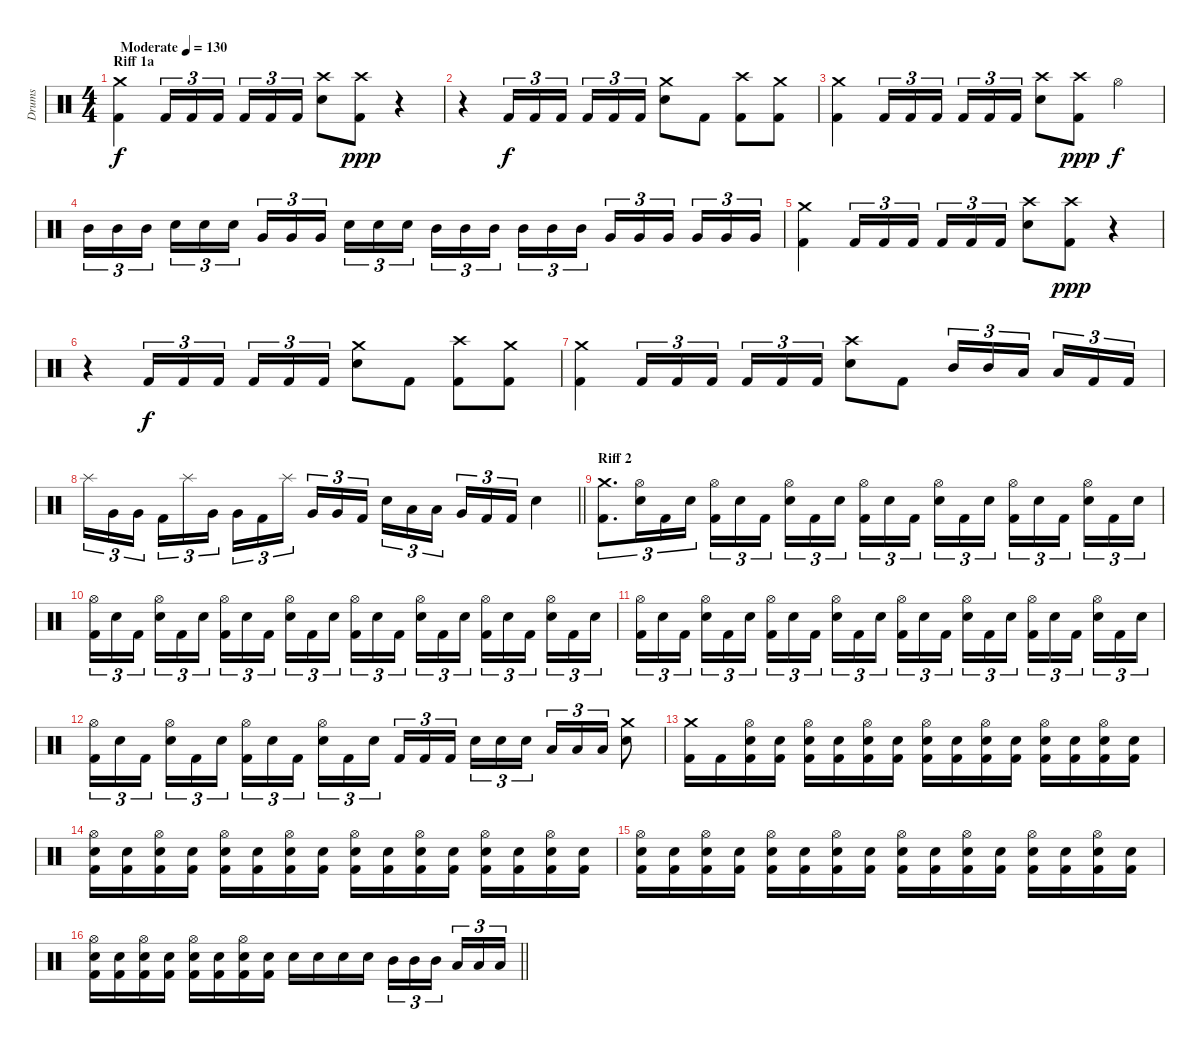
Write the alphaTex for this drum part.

\track ("Drums" "Drums") {instrument percussion}
\staff {score}
\articulation defaults
\ts (4 4)
\section ("" "Riff 1a")
\tempo (130 "Moderate")
\clef neutral
\ks c
("Crash medium (hit)" "Kick (hit) 2").4{dy f} "Kick (hit) 2".16{tu (3 2)} "Kick (hit) 2".16{tu (3 2)} "Kick (hit) 2".16{tu (3 2) beam splitsecondary} "Kick (hit) 2".16{tu (3 2)} "Kick (hit) 2".16{tu (3 2)} "Kick (hit) 2".16{tu (3 2)} ("Crash high (hit)" "Electric Snare (hit)").8 ("Crash high (hit)" "Kick (hit) 2").8{dy ppp} r.4 |
r.4 "Kick (hit) 2".16{tu (3 2) dy f} "Kick (hit) 2".16{tu (3 2)} "Kick (hit) 2".16{tu (3 2) beam splitsecondary} "Kick (hit) 2".16{tu (3 2)} "Kick (hit) 2".16{tu (3 2)} "Kick (hit) 2".16{tu (3 2)} ("Electric Snare (hit)" "Crash medium (hit)").8 "Kick (hit) 2".8 ("Kick (hit) 2" "Crash high (hit)").8 ("Kick (hit) 2" "Crash medium (hit)").8 |
("Crash medium (hit)" "Kick (hit) 2").4 "Kick (hit) 2".16{tu (3 2)} "Kick (hit) 2".16{tu (3 2)} "Kick (hit) 2".16{tu (3 2) beam splitsecondary} "Kick (hit) 2".16{tu (3 2)} "Kick (hit) 2".16{tu (3 2)} "Kick (hit) 2".16{tu (3 2)} ("Crash high (hit)" "Electric Snare (hit)").8 ("Crash high (hit)" "Kick (hit) 2").8{dy ppp} "Hi-Hat (open)".4{dy f} |
"Mid Tom (hit)".16{tu (3 2)} "Mid Tom (hit)".16{tu (3 2)} "Mid Tom (hit)".16{tu (3 2) beam splitsecondary} "Electric Snare (hit)".16{tu (3 2)} "Electric Snare (hit)".16{tu (3 2)} "Electric Snare (hit)".16{tu (3 2)} "Very Low Tom (hit)".16{tu (3 2)} "Very Low Tom (hit)".16{tu (3 2)} "Very Low Tom (hit)".16{tu (3 2) beam splitsecondary} "Electric Snare (hit)".16{tu (3 2)} "Electric Snare (hit)".16{tu (3 2)} "Electric Snare (hit)".16{tu (3 2)} "Mid Tom (hit)".16{tu (3 2)} "Mid Tom (hit)".16{tu (3 2)} "Mid Tom (hit)".16{tu (3 2) beam splitsecondary} "Mid Tom (hit)".16{tu (3 2)} "Mid Tom (hit)".16{tu (3 2)} "Mid Tom (hit)".16{tu (3 2)} "Very Low Tom (hit)".16{tu (3 2)} "Very Low Tom (hit)".16{tu (3 2)} "Very Low Tom (hit)".16{tu (3 2) beam splitsecondary} "Very Low Tom (hit)".16{tu (3 2)} "Very Low Tom (hit)".16{tu (3 2)} "Very Low Tom (hit)".16{tu (3 2)} |
("Crash medium (hit)" "Kick (hit) 2").4 "Kick (hit) 2".16{tu (3 2)} "Kick (hit) 2".16{tu (3 2)} "Kick (hit) 2".16{tu (3 2) beam splitsecondary} "Kick (hit) 2".16{tu (3 2)} "Kick (hit) 2".16{tu (3 2)} "Kick (hit) 2".16{tu (3 2)} ("Crash high (hit)" "Electric Snare (hit)").8 ("Crash high (hit)" "Kick (hit) 2").8{dy ppp} r.4 |
r.4 "Kick (hit) 2".16{tu (3 2) dy f} "Kick (hit) 2".16{tu (3 2)} "Kick (hit) 2".16{tu (3 2) beam splitsecondary} "Kick (hit) 2".16{tu (3 2)} "Kick (hit) 2".16{tu (3 2)} "Kick (hit) 2".16{tu (3 2)} ("Electric Snare (hit)" "Crash medium (hit)").8 "Kick (hit) 2".8 ("Kick (hit) 2" "Crash high (hit)").8 ("Kick (hit) 2" "Crash medium (hit)").8 |
("Crash medium (hit)" "Kick (hit) 2").4 "Kick (hit) 2".16{tu (3 2)} "Kick (hit) 2".16{tu (3 2)} "Kick (hit) 2".16{tu (3 2) beam splitsecondary} "Kick (hit) 2".16{tu (3 2)} "Kick (hit) 2".16{tu (3 2)} "Kick (hit) 2".16{tu (3 2)} ("Crash high (hit)" "Electric Snare (hit)").8 "Kick (hit) 2".8 "Mid Tom (hit)".16{tu (3 2)} "Mid Tom (hit)".16{tu (3 2)} "Low Tom (hit)".16{tu (3 2) beam splitsecondary} "Low Tom (hit)".16{tu (3 2)} "Kick (hit) 2".16{tu (3 2)} "Kick (hit) 2".16{tu (3 2)} |
\barLineRight lightlight "Splash (hit)".16{tu (3 2)} "Very Low Tom (hit)".16{tu (3 2)} "Very Low Tom (hit)".16{tu (3 2) beam splitsecondary} "Kick (hit) 2".16{tu (3 2)} "Splash (hit)".16{tu (3 2)} "Very Low Tom (hit)".16{tu (3 2)} "Very Low Tom (hit)".16{tu (3 2)} "Kick (hit) 2".16{tu (3 2)} "Splash (hit)".16{tu (3 2) beam splitsecondary} "Very Low Tom (hit)".16{tu (3 2)} "Very Low Tom (hit)".16{tu (3 2)} "Kick (hit) 2".16{tu (3 2)} "Electric Snare (hit)".16{tu (3 2)} "Low Tom (hit)".16{tu (3 2)} "Low Tom (hit)".16{tu (3 2) beam splitsecondary} "Very Low Tom (hit)".16{tu (3 2)} "Kick (hit) 2".16{tu (3 2)} "Kick (hit) 2".16{tu (3 2)} "Electric Snare (hit)".4
|
\section ("" "Riff 2")
("Crash medium (hit)" "Kick (hit) 2").8{d tu (3 2)} ("Electric Snare (hit)" "Hi-Hat (open)").16{tu (3 2)} "Kick (hit) 2".16{tu (3 2)} "Electric Snare (hit)".16{tu (3 2)} ("Kick (hit) 2" "Hi-Hat (open)").16{tu (3 2)} "Electric Snare (hit)".16{tu (3 2)} "Kick (hit) 2".16{tu (3 2) beam splitsecondary} ("Electric Snare (hit)" "Hi-Hat (open)").16{tu (3 2)} "Kick (hit) 2".16{tu (3 2)} "Electric Snare (hit)".16{tu (3 2)} ("Kick (hit) 2" "Hi-Hat (open)").16{tu (3 2)} "Electric Snare (hit)".16{tu (3 2)} "Kick (hit) 2".16{tu (3 2) beam splitsecondary} ("Electric Snare (hit)" "Hi-Hat (open)").16{tu (3 2)} "Kick (hit) 2".16{tu (3 2)} "Electric Snare (hit)".16{tu (3 2)} ("Kick (hit) 2" "Hi-Hat (open)").16{tu (3 2)} "Electric Snare (hit)".16{tu (3 2)} "Kick (hit) 2".16{tu (3 2) beam splitsecondary} ("Electric Snare (hit)" "Hi-Hat (open)").16{tu (3 2)} "Kick (hit) 2".16{tu (3 2)} "Electric Snare (hit)".16{tu (3 2)} |
("Kick (hit) 2" "Hi-Hat (open)").16{tu (3 2)} "Electric Snare (hit)".16{tu (3 2)} "Kick (hit) 2".16{tu (3 2) beam splitsecondary} ("Electric Snare (hit)" "Hi-Hat (open)").16{tu (3 2)} "Kick (hit) 2".16{tu (3 2)} "Electric Snare (hit)".16{tu (3 2)} ("Kick (hit) 2" "Hi-Hat (open)").16{tu (3 2)} "Electric Snare (hit)".16{tu (3 2)} "Kick (hit) 2".16{tu (3 2) beam splitsecondary} ("Electric Snare (hit)" "Hi-Hat (open)").16{tu (3 2)} "Kick (hit) 2".16{tu (3 2)} "Electric Snare (hit)".16{tu (3 2)} ("Kick (hit) 2" "Hi-Hat (open)").16{tu (3 2)} "Electric Snare (hit)".16{tu (3 2)} "Kick (hit) 2".16{tu (3 2) beam splitsecondary} ("Electric Snare (hit)" "Hi-Hat (open)").16{tu (3 2)} "Kick (hit) 2".16{tu (3 2)} "Electric Snare (hit)".16{tu (3 2)} ("Kick (hit) 2" "Hi-Hat (open)").16{tu (3 2)} "Electric Snare (hit)".16{tu (3 2)} "Kick (hit) 2".16{tu (3 2) beam splitsecondary} ("Electric Snare (hit)" "Hi-Hat (open)").16{tu (3 2)} "Kick (hit) 2".16{tu (3 2)} "Electric Snare (hit)".16{tu (3 2)} |
("Kick (hit) 2" "Hi-Hat (open)").16{tu (3 2)} "Electric Snare (hit)".16{tu (3 2)} "Kick (hit) 2".16{tu (3 2) beam splitsecondary} ("Electric Snare (hit)" "Hi-Hat (open)").16{tu (3 2)} "Kick (hit) 2".16{tu (3 2)} "Electric Snare (hit)".16{tu (3 2)} ("Kick (hit) 2" "Hi-Hat (open)").16{tu (3 2)} "Electric Snare (hit)".16{tu (3 2)} "Kick (hit) 2".16{tu (3 2) beam splitsecondary} ("Electric Snare (hit)" "Hi-Hat (open)").16{tu (3 2)} "Kick (hit) 2".16{tu (3 2)} "Electric Snare (hit)".16{tu (3 2)} ("Kick (hit) 2" "Hi-Hat (open)").16{tu (3 2)} "Electric Snare (hit)".16{tu (3 2)} "Kick (hit) 2".16{tu (3 2) beam splitsecondary} ("Electric Snare (hit)" "Hi-Hat (open)").16{tu (3 2)} "Kick (hit) 2".16{tu (3 2)} "Electric Snare (hit)".16{tu (3 2)} ("Kick (hit) 2" "Hi-Hat (open)").16{tu (3 2)} "Electric Snare (hit)".16{tu (3 2)} "Kick (hit) 2".16{tu (3 2) beam splitsecondary} ("Electric Snare (hit)" "Hi-Hat (open)").16{tu (3 2)} "Kick (hit) 2".16{tu (3 2)} "Electric Snare (hit)".16{tu (3 2)} |
("Kick (hit) 2" "Hi-Hat (open)").16{tu (3 2)} "Electric Snare (hit)".16{tu (3 2)} "Kick (hit) 2".16{tu (3 2) beam splitsecondary} ("Electric Snare (hit)" "Hi-Hat (open)").16{tu (3 2)} "Kick (hit) 2".16{tu (3 2)} "Electric Snare (hit)".16{tu (3 2)} ("Kick (hit) 2" "Hi-Hat (open)").16{tu (3 2)} "Electric Snare (hit)".16{tu (3 2)} "Kick (hit) 2".16{tu (3 2) beam splitsecondary} ("Electric Snare (hit)" "Hi-Hat (open)").16{tu (3 2)} "Kick (hit) 2".16{tu (3 2)} "Electric Snare (hit)".16{tu (3 2)} "Kick (hit) 2".16{tu (3 2)} "Kick (hit) 2".16{tu (3 2)} "Kick (hit) 2".16{tu (3 2) beam splitsecondary} "Electric Snare (hit)".16{tu (3 2)} "Electric Snare (hit)".16{tu (3 2)} "Electric Snare (hit)".16{tu (3 2)} "Low Tom (hit)".16{tu (3 2)} "Low Tom (hit)".16{tu (3 2)} "Low Tom (hit)".16{tu (3 2)} ("Crash medium (hit)" "Electric Snare (hit)").8 |
("Kick (hit) 2" "Crash medium (hit)").16 "Kick (hit) 2".16 ("Kick (hit) 2" "Electric Snare (hit)" "Hi-Hat (open)").16 ("Kick (hit) 2" "Electric Snare (hit)").16 ("Kick (hit) 2" "Electric Snare (hit)" "Hi-Hat (open)").16 ("Kick (hit) 2" "Electric Snare (hit)").16 ("Kick (hit) 2" "Electric Snare (hit)" "Hi-Hat (open)").16 ("Kick (hit) 2" "Electric Snare (hit)").16 ("Kick (hit) 2" "Electric Snare (hit)" "Hi-Hat (open)").16 ("Kick (hit) 2" "Electric Snare (hit)").16 ("Kick (hit) 2" "Electric Snare (hit)" "Hi-Hat (open)").16 ("Kick (hit) 2" "Electric Snare (hit)").16 ("Kick (hit) 2" "Electric Snare (hit)" "Hi-Hat (open)").16 ("Kick (hit) 2" "Electric Snare (hit)").16 ("Kick (hit) 2" "Electric Snare (hit)" "Hi-Hat (open)").16 ("Kick (hit) 2" "Electric Snare (hit)").16 |
("Kick (hit) 2" "Electric Snare (hit)" "Hi-Hat (open)").16 ("Kick (hit) 2" "Electric Snare (hit)").16 ("Kick (hit) 2" "Electric Snare (hit)" "Hi-Hat (open)").16 ("Kick (hit) 2" "Electric Snare (hit)").16 ("Kick (hit) 2" "Electric Snare (hit)" "Hi-Hat (open)").16 ("Kick (hit) 2" "Electric Snare (hit)").16 ("Kick (hit) 2" "Electric Snare (hit)" "Hi-Hat (open)").16 ("Kick (hit) 2" "Electric Snare (hit)").16 ("Kick (hit) 2" "Electric Snare (hit)" "Hi-Hat (open)").16 ("Kick (hit) 2" "Electric Snare (hit)").16 ("Kick (hit) 2" "Electric Snare (hit)" "Hi-Hat (open)").16 ("Kick (hit) 2" "Electric Snare (hit)").16 ("Kick (hit) 2" "Electric Snare (hit)" "Hi-Hat (open)").16 ("Kick (hit) 2" "Electric Snare (hit)").16 ("Kick (hit) 2" "Electric Snare (hit)" "Hi-Hat (open)").16 ("Kick (hit) 2" "Electric Snare (hit)").16 |
("Kick (hit) 2" "Electric Snare (hit)" "Hi-Hat (open)").16 ("Kick (hit) 2" "Electric Snare (hit)").16 ("Kick (hit) 2" "Electric Snare (hit)" "Hi-Hat (open)").16 ("Kick (hit) 2" "Electric Snare (hit)").16 ("Kick (hit) 2" "Electric Snare (hit)" "Hi-Hat (open)").16 ("Kick (hit) 2" "Electric Snare (hit)").16 ("Kick (hit) 2" "Electric Snare (hit)" "Hi-Hat (open)").16 ("Kick (hit) 2" "Electric Snare (hit)").16 ("Kick (hit) 2" "Electric Snare (hit)" "Hi-Hat (open)").16 ("Kick (hit) 2" "Electric Snare (hit)").16 ("Kick (hit) 2" "Electric Snare (hit)" "Hi-Hat (open)").16 ("Kick (hit) 2" "Electric Snare (hit)").16 ("Kick (hit) 2" "Electric Snare (hit)" "Hi-Hat (open)").16 ("Kick (hit) 2" "Electric Snare (hit)").16 ("Kick (hit) 2" "Electric Snare (hit)" "Hi-Hat (open)").16 ("Kick (hit) 2" "Electric Snare (hit)").16 |
\barLineRight lightlight
("Kick (hit) 2" "Electric Snare (hit)" "Hi-Hat (open)").16 ("Kick (hit) 2" "Electric Snare (hit)").16 ("Kick (hit) 2" "Electric Snare (hit)" "Hi-Hat (open)").16 ("Kick (hit) 2" "Electric Snare (hit)").16 ("Kick (hit) 2" "Electric Snare (hit)" "Hi-Hat (open)").16 ("Kick (hit) 2" "Electric Snare (hit)").16 ("Kick (hit) 2" "Electric Snare (hit)" "Hi-Hat (open)").16 ("Kick (hit) 2" "Electric Snare (hit)").16 "Electric Snare (hit)".16 "Electric Snare (hit)".16 "Electric Snare (hit)".16 "Electric Snare (hit)".16 "Mid Tom (hit)".16{tu (3 2)} "Mid Tom (hit)".16{tu (3 2)} "Mid Tom (hit)".16{tu (3 2) beam splitsecondary} "Low Tom (hit)".16{tu (3 2)} "Low Tom (hit)".16{tu (3 2)} "Low Tom (hit)".16{tu (3 2)}
